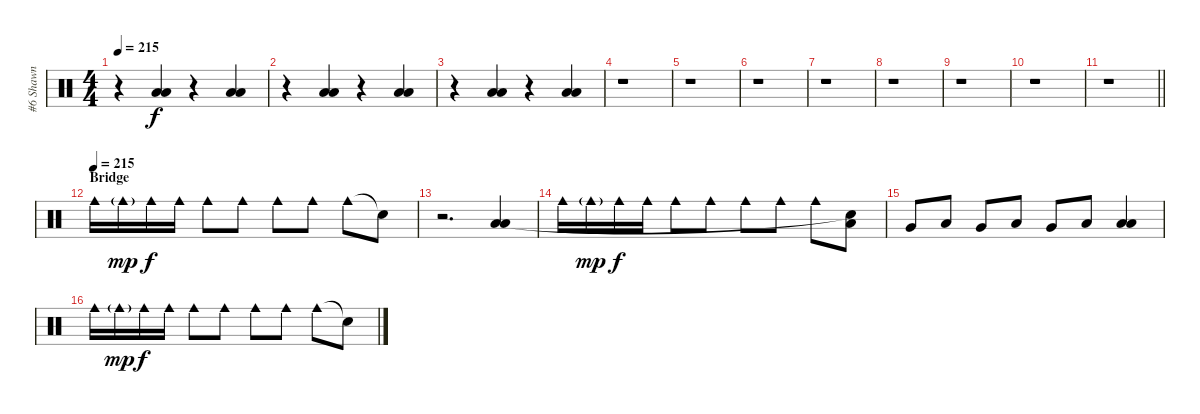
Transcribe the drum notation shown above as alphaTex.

\track ("#6 Shawn" "#6 Shawn") {instrument percussion}
\staff {score}
\articulation defaults
\ts (4 4)
\tempo 215
\clef neutral
\ks c
r.4{dy f} ("Low Floor Tom (hit)" "Low Floor Tom (hit)").4 r.4 ("Low Floor Tom (hit)" "Low Floor Tom (hit)").4 |
r.4 ("Low Floor Tom (hit)" "Low Floor Tom (hit)").4 r.4 ("Low Floor Tom (hit)" "Low Floor Tom (hit)").4 |
r.4 ("Low Floor Tom (hit)" "Low Floor Tom (hit)").4 r.4 ("Low Floor Tom (hit)" "Low Floor Tom (hit)").4 |
r.1 |
r.1 |
r.1 |
r.1 |
r.1 |
r.1 |
r.1 |
\barLineRight lightlight
r.1 |
\section ("" "Bridge")
\tempo (215)
"Cowbell medium (hit)".16 "Cowbell medium (hit)"{g}.16{dy mp} "Cowbell medium (hit)".16{dy f} "Cowbell medium (hit)".16 "Cowbell medium (hit)".8 "Cowbell medium (hit)".8 "Cowbell medium (hit)".8 "Cowbell medium (hit)".8 "Cowbell medium (hit)".8 "Snare (hit)"{t}.8 |
r.2{d} ("Low Floor Tom (hit)" "Low Floor Tom (hit)").4 |
"Cowbell medium (hit)".16 "Cowbell medium (hit)"{g}.16{dy mp} "Cowbell medium (hit)".16{dy f} "Cowbell medium (hit)".16 "Cowbell medium (hit)".8 "Cowbell medium (hit)".8 "Cowbell medium (hit)".8 "Cowbell medium (hit)".8 "Cowbell medium (hit)".8 ("Low Tom (hit)" "Snare (hit)"{t}).8 |
"Very Low Tom (hit)".8 "Low Tom (hit)".8 "Very Low Tom (hit)".8 "Low Tom (hit)".8 "Very Low Tom (hit)".8 "Low Tom (hit)".8 ("Low Floor Tom (hit)" "Low Floor Tom (hit)").4 |
"Cowbell medium (hit)".16 "Cowbell medium (hit)"{g}.16{dy mp} "Cowbell medium (hit)".16{dy f} "Cowbell medium (hit)".16 "Cowbell medium (hit)".8 "Cowbell medium (hit)".8 "Cowbell medium (hit)".8 "Cowbell medium (hit)".8 "Cowbell medium (hit)".8 "Snare (hit)"{t}.8
